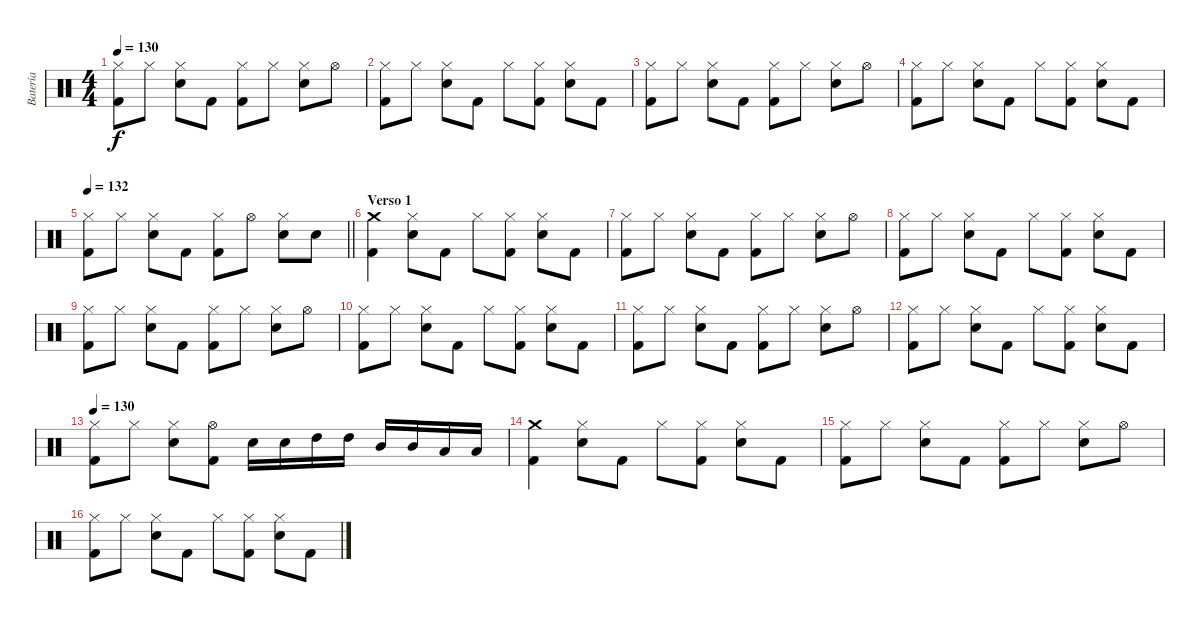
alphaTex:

\track ("Batería" "Batería") {instrument percussion}
\staff {score}
\articulation defaults
\ts (4 4)
\tempo 130
\clef neutral
\ks aminor
("Hi-Hat (closed)" "Kick (hit) 2").8{dy f} "Hi-Hat (closed)".8 ("Hi-Hat (closed)" "Electric Snare (hit)").8 "Kick (hit) 2".8 ("Hi-Hat (closed)" "Kick (hit) 2").8 "Hi-Hat (closed)".8 ("Hi-Hat (closed)" "Electric Snare (hit)").8 "Hi-Hat (open)".8 |
("Hi-Hat (closed)" "Kick (hit) 2").8 "Hi-Hat (closed)".8 ("Hi-Hat (closed)" "Electric Snare (hit)").8 "Kick (hit) 2".8 "Hi-Hat (closed)".8 ("Hi-Hat (closed)" "Kick (hit) 2").8 ("Hi-Hat (closed)" "Electric Snare (hit)").8 "Kick (hit) 2".8 |
("Hi-Hat (closed)" "Kick (hit) 2").8 "Hi-Hat (closed)".8 ("Hi-Hat (closed)" "Electric Snare (hit)").8 "Kick (hit) 2".8 ("Hi-Hat (closed)" "Kick (hit) 2").8 "Hi-Hat (closed)".8 ("Hi-Hat (closed)" "Electric Snare (hit)").8 "Hi-Hat (open)".8 |
("Hi-Hat (closed)" "Kick (hit) 2").8 "Hi-Hat (closed)".8 ("Hi-Hat (closed)" "Electric Snare (hit)").8 "Kick (hit) 2".8 "Hi-Hat (closed)".8 ("Hi-Hat (closed)" "Kick (hit) 2").8 ("Hi-Hat (closed)" "Electric Snare (hit)").8 "Kick (hit) 2".8 |
\tempo 132
\barLineRight lightlight
("Hi-Hat (closed)" "Kick (hit) 2").8 "Hi-Hat (closed)".8 ("Hi-Hat (closed)" "Electric Snare (hit)").8 "Kick (hit) 2".8 ("Hi-Hat (closed)" "Kick (hit) 2").8 "Hi-Hat (open)".8 ("Hi-Hat (closed)" "Electric Snare (hit)").8 "Electric Snare (hit)".8 |
\section ("" "Verso 1")
("Crash medium (hit)" "Kick (hit) 2").4 ("Hi-Hat (closed)" "Electric Snare (hit)").8 "Kick (hit) 2".8 "Hi-Hat (closed)".8 ("Hi-Hat (closed)" "Kick (hit) 2").8 ("Hi-Hat (closed)" "Electric Snare (hit)").8 "Kick (hit) 2".8 |
("Hi-Hat (closed)" "Kick (hit) 2").8 "Hi-Hat (closed)".8 ("Hi-Hat (closed)" "Electric Snare (hit)").8 "Kick (hit) 2".8 ("Hi-Hat (closed)" "Kick (hit) 2").8 "Hi-Hat (closed)".8 ("Hi-Hat (closed)" "Electric Snare (hit)").8 "Hi-Hat (open)".8 |
("Hi-Hat (closed)" "Kick (hit) 2").8 "Hi-Hat (closed)".8 ("Hi-Hat (closed)" "Electric Snare (hit)").8 "Kick (hit) 2".8 "Hi-Hat (closed)".8 ("Hi-Hat (closed)" "Kick (hit) 2").8 ("Hi-Hat (closed)" "Electric Snare (hit)").8 "Kick (hit) 2".8 |
("Hi-Hat (closed)" "Kick (hit) 2").8 "Hi-Hat (closed)".8 ("Hi-Hat (closed)" "Electric Snare (hit)").8 "Kick (hit) 2".8 ("Hi-Hat (closed)" "Kick (hit) 2").8 "Hi-Hat (closed)".8 ("Hi-Hat (closed)" "Electric Snare (hit)").8 "Hi-Hat (open)".8 |
("Hi-Hat (closed)" "Kick (hit) 2").8 "Hi-Hat (closed)".8 ("Hi-Hat (closed)" "Electric Snare (hit)").8 "Kick (hit) 2".8 "Hi-Hat (closed)".8 ("Hi-Hat (closed)" "Kick (hit) 2").8 ("Hi-Hat (closed)" "Electric Snare (hit)").8 "Kick (hit) 2".8 |
("Hi-Hat (closed)" "Kick (hit) 2").8 "Hi-Hat (closed)".8 ("Hi-Hat (closed)" "Electric Snare (hit)").8 "Kick (hit) 2".8 ("Hi-Hat (closed)" "Kick (hit) 2").8 "Hi-Hat (closed)".8 ("Hi-Hat (closed)" "Electric Snare (hit)").8 "Hi-Hat (open)".8 |
("Hi-Hat (closed)" "Kick (hit) 2").8 "Hi-Hat (closed)".8 ("Hi-Hat (closed)" "Electric Snare (hit)").8 "Kick (hit) 2".8 "Hi-Hat (closed)".8 ("Hi-Hat (closed)" "Kick (hit) 2").8 ("Hi-Hat (closed)" "Electric Snare (hit)").8 "Kick (hit) 2".8 |
\tempo 130
("Hi-Hat (closed)" "Kick (hit) 2").8 "Hi-Hat (closed)".8 ("Hi-Hat (closed)" "Electric Snare (hit)").8 ("Hi-Hat (open)" "Kick (hit) 2").8 "Electric Snare (hit)".16 "Electric Snare (hit)".16 "High Tom (hit)".16 "High Tom (hit)".16 "Mid Tom (hit)".16 "Mid Tom (hit)".16 "Low Tom (hit)".16 "Low Tom (hit)".16 |
("Crash medium (hit)" "Kick (hit) 2").4 ("Hi-Hat (closed)" "Electric Snare (hit)").8 "Kick (hit) 2".8 "Hi-Hat (closed)".8 ("Hi-Hat (closed)" "Kick (hit) 2").8 ("Hi-Hat (closed)" "Electric Snare (hit)").8 "Kick (hit) 2".8 |
("Hi-Hat (closed)" "Kick (hit) 2").8 "Hi-Hat (closed)".8 ("Hi-Hat (closed)" "Electric Snare (hit)").8 "Kick (hit) 2".8 ("Hi-Hat (closed)" "Kick (hit) 2").8 "Hi-Hat (closed)".8 ("Hi-Hat (closed)" "Electric Snare (hit)").8 "Hi-Hat (open)".8 |
("Hi-Hat (closed)" "Kick (hit) 2").8 "Hi-Hat (closed)".8 ("Hi-Hat (closed)" "Electric Snare (hit)").8 "Kick (hit) 2".8 "Hi-Hat (closed)".8 ("Hi-Hat (closed)" "Kick (hit) 2").8 ("Hi-Hat (closed)" "Electric Snare (hit)").8 "Kick (hit) 2".8
